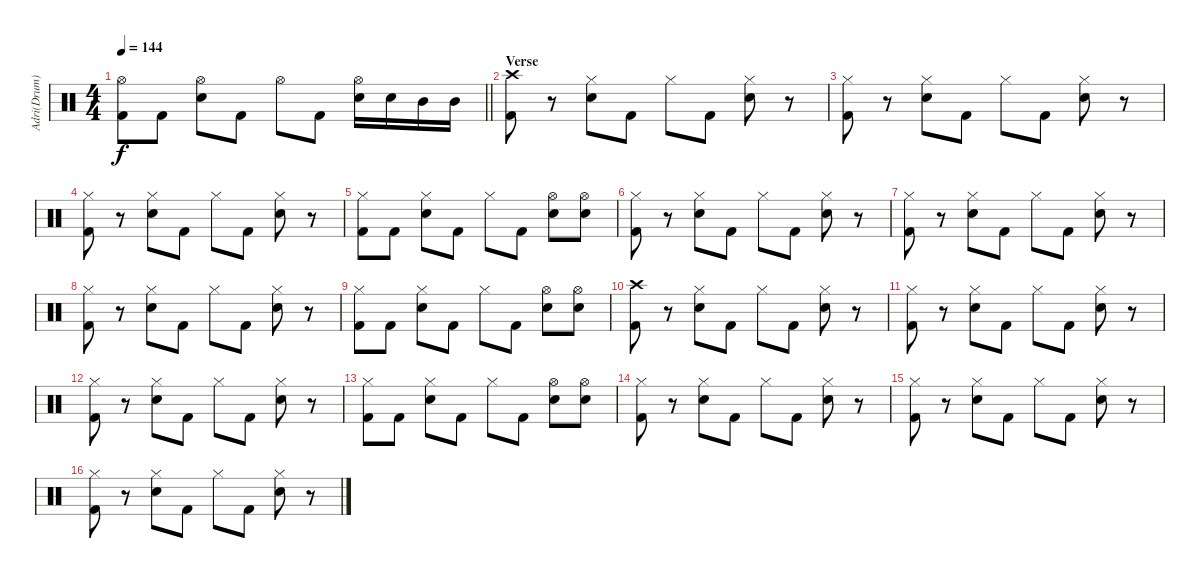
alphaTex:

\track ("Adri(Drum)" "Adri(Drum)") {instrument percussion}
\staff {score}
\articulation defaults
\ts (4 4)
\tempo 144
\clef neutral
\barLineRight lightlight
\ks c
("Hi-Hat (open)" "Kick (hit) 2").8{dy f} "Kick (hit) 2".8 ("Hi-Hat (open)" "Electric Snare (hit)").8 "Kick (hit) 2".8 "Hi-Hat (open)".8 "Kick (hit) 2".8 ("Hi-Hat (open)" "Electric Snare (hit)").16 "Electric Snare (hit)".16 "Mid Tom (hit)".16 "Mid Tom (hit)".16 |
\section ("" "Verse")
("Crash high (hit)" "Kick (hit) 2").8 r.8 ("Hi-Hat (closed)" "Electric Snare (hit)").8 "Kick (hit) 2".8 "Hi-Hat (closed)".8 "Kick (hit) 2".8 ("Hi-Hat (closed)" "Electric Snare (hit)").8 r.8 |
("Hi-Hat (closed)" "Kick (hit) 2").8 r.8 ("Hi-Hat (closed)" "Electric Snare (hit)").8 "Kick (hit) 2".8 "Hi-Hat (closed)".8 "Kick (hit) 2".8 ("Hi-Hat (closed)" "Electric Snare (hit)").8 r.8 |
("Hi-Hat (closed)" "Kick (hit) 2").8 r.8 ("Hi-Hat (closed)" "Electric Snare (hit)").8 "Kick (hit) 2".8 "Hi-Hat (closed)".8 "Kick (hit) 2".8 ("Hi-Hat (closed)" "Electric Snare (hit)").8 r.8 |
("Hi-Hat (closed)" "Kick (hit) 2").8 "Kick (hit) 2".8 ("Hi-Hat (closed)" "Electric Snare (hit)").8 "Kick (hit) 2".8 "Hi-Hat (closed)".8 "Kick (hit) 2".8 ("Hi-Hat (open)" "Electric Snare (hit)").8 ("Hi-Hat (open)" "Electric Snare (hit)").8 |
("Hi-Hat (closed)" "Kick (hit) 2").8 r.8 ("Hi-Hat (closed)" "Electric Snare (hit)").8 "Kick (hit) 2".8 "Hi-Hat (closed)".8 "Kick (hit) 2".8 ("Hi-Hat (closed)" "Electric Snare (hit)").8 r.8 |
("Hi-Hat (closed)" "Kick (hit) 2").8 r.8 ("Hi-Hat (closed)" "Electric Snare (hit)").8 "Kick (hit) 2".8 "Hi-Hat (closed)".8 "Kick (hit) 2".8 ("Hi-Hat (closed)" "Electric Snare (hit)").8 r.8 |
("Hi-Hat (closed)" "Kick (hit) 2").8 r.8 ("Hi-Hat (closed)" "Electric Snare (hit)").8 "Kick (hit) 2".8 "Hi-Hat (closed)".8 "Kick (hit) 2".8 ("Hi-Hat (closed)" "Electric Snare (hit)").8 r.8 |
("Hi-Hat (closed)" "Kick (hit) 2").8 "Kick (hit) 2".8 ("Hi-Hat (closed)" "Electric Snare (hit)").8 "Kick (hit) 2".8 "Hi-Hat (closed)".8 "Kick (hit) 2".8 ("Hi-Hat (open)" "Electric Snare (hit)").8 ("Hi-Hat (open)" "Electric Snare (hit)").8 |
("Crash high (hit)" "Kick (hit) 2").8 r.8 ("Hi-Hat (closed)" "Electric Snare (hit)").8 "Kick (hit) 2".8 "Hi-Hat (closed)".8 "Kick (hit) 2".8 ("Hi-Hat (closed)" "Electric Snare (hit)").8 r.8 |
("Hi-Hat (closed)" "Kick (hit) 2").8 r.8 ("Hi-Hat (closed)" "Electric Snare (hit)").8 "Kick (hit) 2".8 "Hi-Hat (closed)".8 "Kick (hit) 2".8 ("Hi-Hat (closed)" "Electric Snare (hit)").8 r.8 |
("Hi-Hat (closed)" "Kick (hit) 2").8 r.8 ("Hi-Hat (closed)" "Electric Snare (hit)").8 "Kick (hit) 2".8 "Hi-Hat (closed)".8 "Kick (hit) 2".8 ("Hi-Hat (closed)" "Electric Snare (hit)").8 r.8 |
("Hi-Hat (closed)" "Kick (hit) 2").8 "Kick (hit) 2".8 ("Hi-Hat (closed)" "Electric Snare (hit)").8 "Kick (hit) 2".8 "Hi-Hat (closed)".8 "Kick (hit) 2".8 ("Hi-Hat (open)" "Electric Snare (hit)").8 ("Hi-Hat (open)" "Electric Snare (hit)").8 |
("Hi-Hat (closed)" "Kick (hit) 2").8 r.8 ("Hi-Hat (closed)" "Electric Snare (hit)").8 "Kick (hit) 2".8 "Hi-Hat (closed)".8 "Kick (hit) 2".8 ("Hi-Hat (closed)" "Electric Snare (hit)").8 r.8 |
("Hi-Hat (closed)" "Kick (hit) 2").8 r.8 ("Hi-Hat (closed)" "Electric Snare (hit)").8 "Kick (hit) 2".8 "Hi-Hat (closed)".8 "Kick (hit) 2".8 ("Hi-Hat (closed)" "Electric Snare (hit)").8 r.8 |
("Hi-Hat (closed)" "Kick (hit) 2").8 r.8 ("Hi-Hat (closed)" "Electric Snare (hit)").8 "Kick (hit) 2".8 "Hi-Hat (closed)".8 "Kick (hit) 2".8 ("Hi-Hat (closed)" "Electric Snare (hit)").8 r.8
